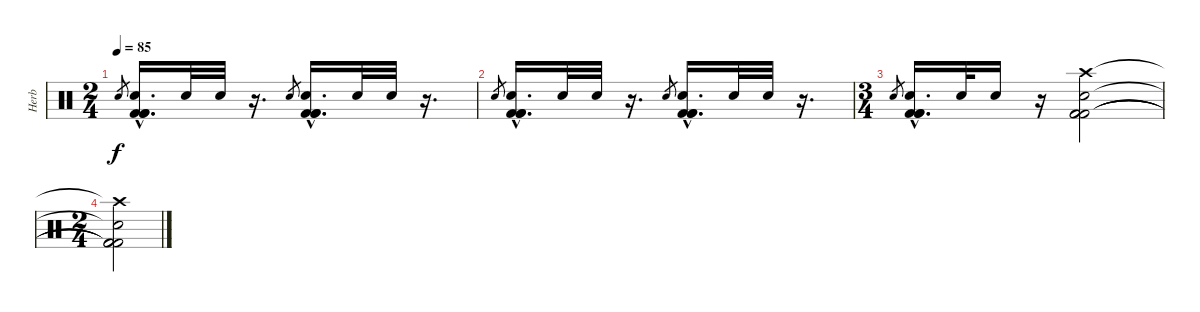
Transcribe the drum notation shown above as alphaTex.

\track ("Herb" "Herb") {instrument percussion}
\staff {score}
\articulation defaults
\ts (2 4)
\tempo 85
\clef neutral
\ks c "Snare (hit) 2".8{gr dy f}
("Snare (hit) 2"{hac} "Kick (hit) 2"{hac} "Kick (hit) 2"{hac} "Kick (hit) 2"{hac}).16{d} "Snare (hit) 2".32 "Snare (hit) 2".32 r.16{d} "Snare (hit) 2".8{gr} ("Snare (hit) 2"{hac} "Kick (hit) 2"{hac} "Kick (hit) 2"{hac} "Kick (hit) 2"{hac}).16{d} "Snare (hit) 2".32 "Snare (hit) 2".32 r.16{d} |
"Snare (hit) 2".8{gr} ("Snare (hit) 2"{hac} "Kick (hit) 2"{hac} "Kick (hit) 2"{hac} "Kick (hit) 2"{hac}).16{d} "Snare (hit) 2".32 "Snare (hit) 2".32 r.16{d} "Snare (hit) 2".8{gr} ("Snare (hit) 2"{hac} "Kick (hit) 2"{hac} "Kick (hit) 2"{hac} "Kick (hit) 2"{hac}).16{d} "Snare (hit) 2".32 "Snare (hit) 2".32 r.16{d} |
\ts (3 4)
"Snare (hit) 2".8{gr} ("Snare (hit) 2"{hac} "Kick (hit) 2"{hac} "Kick (hit) 2"{hac} "Kick (hit) 2"{hac}).16{d} "Snare (hit) 2".32 "Snare (hit) 2".16 r.16 ("Snare (hit) 2" "Kick (hit) 2" "Kick (hit) 2" "Kick (hit) 2" "Crash high (hit)").2 |
\ts (2 4)
("Snare (hit) 2"{t} "Kick (hit) 2"{t} "Kick (hit) 2"{t} "Kick (hit) 2"{t} "Crash high (hit)"{t}).2
